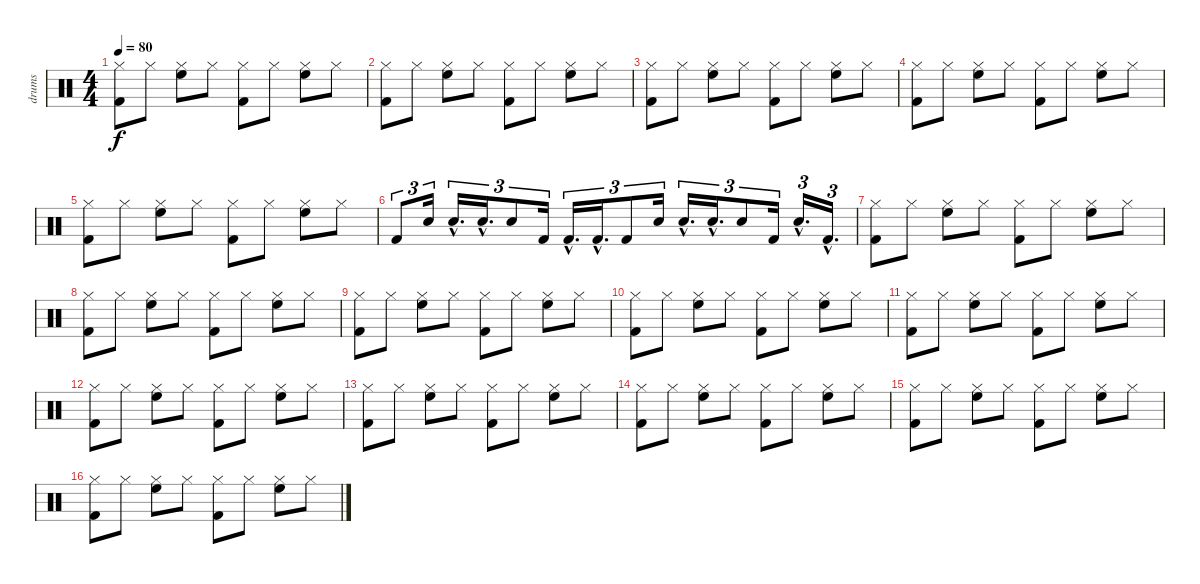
\track ("drums" "drums") {instrument percussion}
\staff {score}
\articulation defaults
\ts (4 4)
\tempo 80
\clef neutral
\ks c
("Hi-Hat (closed)" "Kick (hit) 2").8{dy f} "Hi-Hat (closed)".8 ("Hi-Hat (closed)" "High Floor Tom (hit)").8 "Hi-Hat (closed)".8 ("Hi-Hat (closed)" "Kick (hit) 2").8 "Hi-Hat (closed)".8 ("Hi-Hat (closed)" "High Floor Tom (hit)").8 "Hi-Hat (closed)".8 |
("Hi-Hat (closed)" "Kick (hit) 2").8 "Hi-Hat (closed)".8 ("Hi-Hat (closed)" "High Floor Tom (hit)").8 "Hi-Hat (closed)".8 ("Hi-Hat (closed)" "Kick (hit) 2").8 "Hi-Hat (closed)".8 ("Hi-Hat (closed)" "High Floor Tom (hit)").8 "Hi-Hat (closed)".8 |
("Hi-Hat (closed)" "Kick (hit) 2").8 "Hi-Hat (closed)".8 ("Hi-Hat (closed)" "High Floor Tom (hit)").8 "Hi-Hat (closed)".8 ("Hi-Hat (closed)" "Kick (hit) 2").8 "Hi-Hat (closed)".8 ("Hi-Hat (closed)" "High Floor Tom (hit)").8 "Hi-Hat (closed)".8 |
("Hi-Hat (closed)" "Kick (hit) 2").8 "Hi-Hat (closed)".8 ("Hi-Hat (closed)" "High Floor Tom (hit)").8 "Hi-Hat (closed)".8 ("Hi-Hat (closed)" "Kick (hit) 2").8 "Hi-Hat (closed)".8 ("Hi-Hat (closed)" "High Floor Tom (hit)").8 "Hi-Hat (closed)".8 |
("Hi-Hat (closed)" "Kick (hit) 2").8 "Hi-Hat (closed)".8 ("Hi-Hat (closed)" "High Floor Tom (hit)").8 "Hi-Hat (closed)".8 ("Hi-Hat (closed)" "Kick (hit) 2").8 "Hi-Hat (closed)".8 ("Hi-Hat (closed)" "High Floor Tom (hit)").8 "Hi-Hat (closed)".8 |
"Kick (hit) 2".8{tu (3 2)} "Hand Clap (hit)".16{tu (3 2)} "Hand Clap (hit)"{hac}.16{d tu (3 2)} "Hand Clap (hit)"{hac}.16{d tu (3 2)} "Hand Clap (hit)".8{tu (3 2)} "Kick (hit) 2".16{tu (3 2)} "Kick (hit) 2"{hac}.16{d tu (3 2)} "Kick (hit) 2"{hac}.16{d tu (3 2)} "Kick (hit) 2".8{tu (3 2)} "Hand Clap (hit)".16{tu (3 2)} "Hand Clap (hit)"{hac}.16{d tu (3 2)} "Hand Clap (hit)"{hac}.16{d tu (3 2)} "Hand Clap (hit)".8{tu (3 2)} "Kick (hit) 2".16{tu (3 2)} "Hand Clap (hit)"{hac}.16{d tu (3 2)} "Kick (hit) 2"{hac}.16{d tu (3 2)} |
("Hi-Hat (closed)" "Kick (hit) 2").8 "Hi-Hat (closed)".8 ("Hi-Hat (closed)" "High Floor Tom (hit)").8 "Hi-Hat (closed)".8 ("Hi-Hat (closed)" "Kick (hit) 2").8 "Hi-Hat (closed)".8 ("Hi-Hat (closed)" "High Floor Tom (hit)").8 "Hi-Hat (closed)".8 |
("Hi-Hat (closed)" "Kick (hit) 2").8 "Hi-Hat (closed)".8 ("Hi-Hat (closed)" "High Floor Tom (hit)").8 "Hi-Hat (closed)".8 ("Hi-Hat (closed)" "Kick (hit) 2").8 "Hi-Hat (closed)".8 ("Hi-Hat (closed)" "High Floor Tom (hit)").8 "Hi-Hat (closed)".8 |
("Hi-Hat (closed)" "Kick (hit) 2").8 "Hi-Hat (closed)".8 ("Hi-Hat (closed)" "High Floor Tom (hit)").8 "Hi-Hat (closed)".8 ("Hi-Hat (closed)" "Kick (hit) 2").8 "Hi-Hat (closed)".8 ("Hi-Hat (closed)" "High Floor Tom (hit)").8 "Hi-Hat (closed)".8 |
("Hi-Hat (closed)" "Kick (hit) 2").8 "Hi-Hat (closed)".8 ("Hi-Hat (closed)" "High Floor Tom (hit)").8 "Hi-Hat (closed)".8 ("Hi-Hat (closed)" "Kick (hit) 2").8 "Hi-Hat (closed)".8 ("Hi-Hat (closed)" "High Floor Tom (hit)").8 "Hi-Hat (closed)".8 |
("Hi-Hat (closed)" "Kick (hit) 2").8 "Hi-Hat (closed)".8 ("Hi-Hat (closed)" "High Floor Tom (hit)").8 "Hi-Hat (closed)".8 ("Hi-Hat (closed)" "Kick (hit) 2").8 "Hi-Hat (closed)".8 ("Hi-Hat (closed)" "High Floor Tom (hit)").8 "Hi-Hat (closed)".8 |
("Hi-Hat (closed)" "Kick (hit) 2").8 "Hi-Hat (closed)".8 ("Hi-Hat (closed)" "High Floor Tom (hit)").8 "Hi-Hat (closed)".8 ("Hi-Hat (closed)" "Kick (hit) 2").8 "Hi-Hat (closed)".8 ("Hi-Hat (closed)" "High Floor Tom (hit)").8 "Hi-Hat (closed)".8 |
("Hi-Hat (closed)" "Kick (hit) 2").8 "Hi-Hat (closed)".8 ("Hi-Hat (closed)" "High Floor Tom (hit)").8 "Hi-Hat (closed)".8 ("Hi-Hat (closed)" "Kick (hit) 2").8 "Hi-Hat (closed)".8 ("Hi-Hat (closed)" "High Floor Tom (hit)").8 "Hi-Hat (closed)".8 |
("Hi-Hat (closed)" "Kick (hit) 2").8 "Hi-Hat (closed)".8 ("Hi-Hat (closed)" "High Floor Tom (hit)").8 "Hi-Hat (closed)".8 ("Hi-Hat (closed)" "Kick (hit) 2").8 "Hi-Hat (closed)".8 ("Hi-Hat (closed)" "High Floor Tom (hit)").8 "Hi-Hat (closed)".8 |
("Hi-Hat (closed)" "Kick (hit) 2").8 "Hi-Hat (closed)".8 ("Hi-Hat (closed)" "High Floor Tom (hit)").8 "Hi-Hat (closed)".8 ("Hi-Hat (closed)" "Kick (hit) 2").8 "Hi-Hat (closed)".8 ("Hi-Hat (closed)" "High Floor Tom (hit)").8 "Hi-Hat (closed)".8 |
("Hi-Hat (closed)" "Kick (hit) 2").8 "Hi-Hat (closed)".8 ("Hi-Hat (closed)" "High Floor Tom (hit)").8 "Hi-Hat (closed)".8 ("Hi-Hat (closed)" "Kick (hit) 2").8 "Hi-Hat (closed)".8 ("Hi-Hat (closed)" "High Floor Tom (hit)").8 "Hi-Hat (closed)".8
